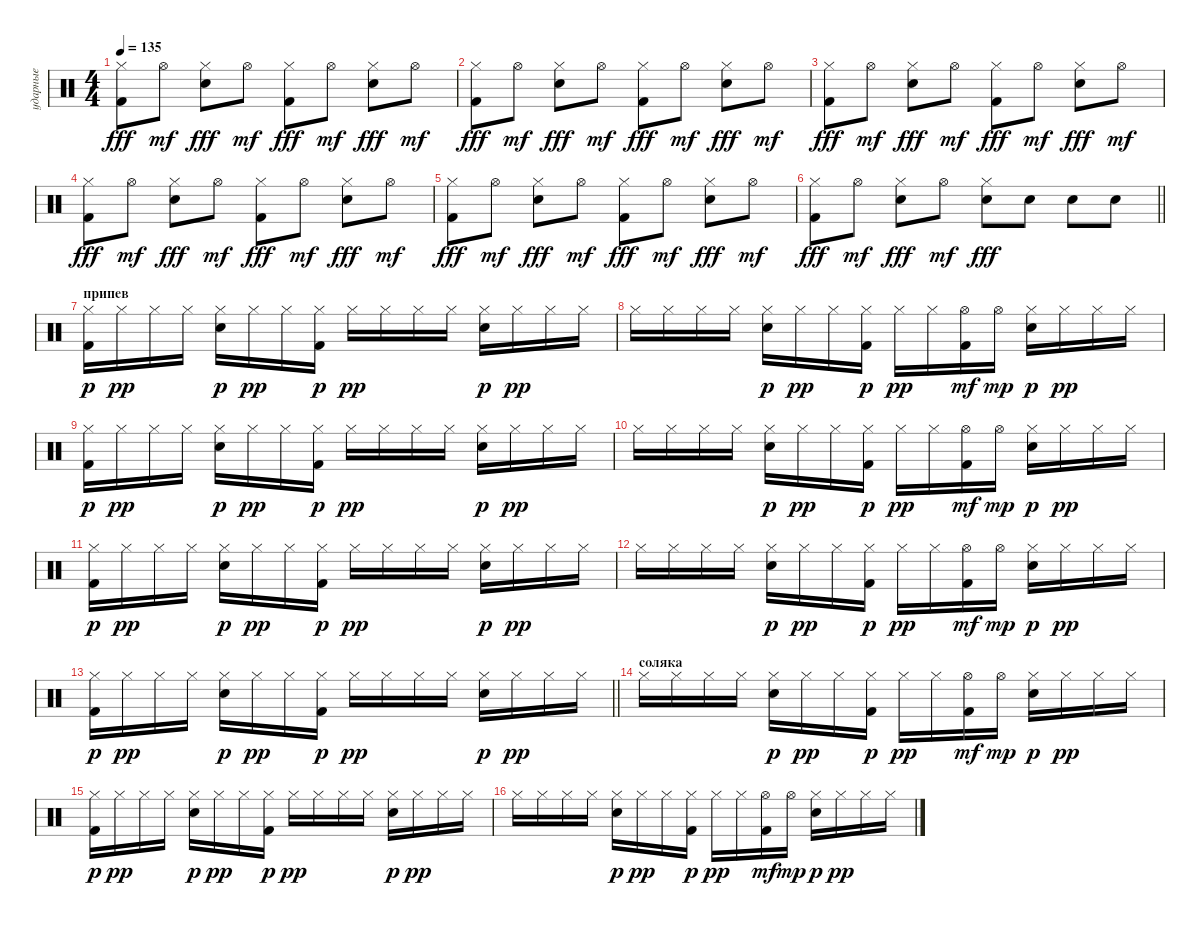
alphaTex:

\track ("ударные" "ударные") {instrument percussion}
\staff {score}
\articulation defaults
\ts (4 4)
\tempo 135
\clef neutral
\ks c
("Hi-Hat (closed)" "Kick (hit) 2").8{dy fff} "Hi-Hat (open)".8{dy mf} ("Hi-Hat (closed)" "Snare (hit) 2").8{dy fff} "Hi-Hat (open)".8{dy mf} ("Hi-Hat (closed)" "Kick (hit) 2").8{dy fff} "Hi-Hat (open)".8{dy mf} ("Hi-Hat (closed)" "Snare (hit) 2").8{dy fff} "Hi-Hat (open)".8{dy mf} |
("Hi-Hat (closed)" "Kick (hit) 2").8{dy fff} "Hi-Hat (open)".8{dy mf} ("Hi-Hat (closed)" "Snare (hit) 2").8{dy fff} "Hi-Hat (open)".8{dy mf} ("Hi-Hat (closed)" "Kick (hit) 2").8{dy fff} "Hi-Hat (open)".8{dy mf} ("Hi-Hat (closed)" "Snare (hit) 2").8{dy fff} "Hi-Hat (open)".8{dy mf} |
("Hi-Hat (closed)" "Kick (hit) 2").8{dy fff} "Hi-Hat (open)".8{dy mf} ("Hi-Hat (closed)" "Snare (hit) 2").8{dy fff} "Hi-Hat (open)".8{dy mf} ("Hi-Hat (closed)" "Kick (hit) 2").8{dy fff} "Hi-Hat (open)".8{dy mf} ("Hi-Hat (closed)" "Snare (hit) 2").8{dy fff} "Hi-Hat (open)".8{dy mf} |
("Hi-Hat (closed)" "Kick (hit) 2").8{dy fff} "Hi-Hat (open)".8{dy mf} ("Hi-Hat (closed)" "Snare (hit) 2").8{dy fff} "Hi-Hat (open)".8{dy mf} ("Hi-Hat (closed)" "Kick (hit) 2").8{dy fff} "Hi-Hat (open)".8{dy mf} ("Hi-Hat (closed)" "Snare (hit) 2").8{dy fff} "Hi-Hat (open)".8{dy mf} |
("Hi-Hat (closed)" "Kick (hit) 2").8{dy fff} "Hi-Hat (open)".8{dy mf} ("Hi-Hat (closed)" "Snare (hit) 2").8{dy fff} "Hi-Hat (open)".8{dy mf} ("Hi-Hat (closed)" "Kick (hit) 2").8{dy fff} "Hi-Hat (open)".8{dy mf} ("Hi-Hat (closed)" "Snare (hit) 2").8{dy fff} "Hi-Hat (open)".8{dy mf} |
\barLineRight lightlight
("Hi-Hat (closed)" "Kick (hit) 2").8{dy fff} "Hi-Hat (open)".8{dy mf} ("Hi-Hat (closed)" "Snare (hit) 2").8{dy fff} "Hi-Hat (open)".8{dy mf} ("Hi-Hat (closed)" "Snare (hit) 2").8{dy fff} "Electric Snare (hit)".8 "Electric Snare (hit)".8 "Electric Snare (hit)".8 |
\section ("" "припев")
("Hi-Hat (closed)" "Kick (hit) 2").16{dy p} "Hi-Hat (closed)".16{dy pp} "Hi-Hat (closed)".16 "Hi-Hat (closed)".16 ("Hi-Hat (closed)" "Electric Snare (hit)").16{dy p} "Hi-Hat (closed)".16{dy pp} "Hi-Hat (closed)".16 ("Hi-Hat (closed)" "Kick (hit) 2").16{dy p} "Hi-Hat (closed)".16{dy pp} "Hi-Hat (closed)".16 "Hi-Hat (closed)".16 "Hi-Hat (closed)".16 ("Hi-Hat (closed)" "Electric Snare (hit)").16{dy p} "Hi-Hat (closed)".16{dy pp} "Hi-Hat (closed)".16 "Hi-Hat (closed)".16 |
"Hi-Hat (closed)".16 "Hi-Hat (closed)".16 "Hi-Hat (closed)".16 "Hi-Hat (closed)".16 ("Hi-Hat (closed)" "Electric Snare (hit)").16{dy p} "Hi-Hat (closed)".16{dy pp} "Hi-Hat (closed)".16 ("Hi-Hat (closed)" "Kick (hit) 2").16{dy p} "Hi-Hat (closed)".16{dy pp} "Hi-Hat (closed)".16 ("Hi-Hat (open)" "Kick (hit) 2").16{dy mf} "Hi-Hat (open)".16{dy mp} ("Hi-Hat (closed)" "Electric Snare (hit)").16{dy p} "Hi-Hat (closed)".16{dy pp} "Hi-Hat (closed)".16 "Hi-Hat (closed)".16 |
("Hi-Hat (closed)" "Kick (hit) 2").16{dy p} "Hi-Hat (closed)".16{dy pp} "Hi-Hat (closed)".16 "Hi-Hat (closed)".16 ("Hi-Hat (closed)" "Electric Snare (hit)").16{dy p} "Hi-Hat (closed)".16{dy pp} "Hi-Hat (closed)".16 ("Hi-Hat (closed)" "Kick (hit) 2").16{dy p} "Hi-Hat (closed)".16{dy pp} "Hi-Hat (closed)".16 "Hi-Hat (closed)".16 "Hi-Hat (closed)".16 ("Hi-Hat (closed)" "Electric Snare (hit)").16{dy p} "Hi-Hat (closed)".16{dy pp} "Hi-Hat (closed)".16 "Hi-Hat (closed)".16 |
"Hi-Hat (closed)".16 "Hi-Hat (closed)".16 "Hi-Hat (closed)".16 "Hi-Hat (closed)".16 ("Hi-Hat (closed)" "Electric Snare (hit)").16{dy p} "Hi-Hat (closed)".16{dy pp} "Hi-Hat (closed)".16 ("Hi-Hat (closed)" "Kick (hit) 2").16{dy p} "Hi-Hat (closed)".16{dy pp} "Hi-Hat (closed)".16 ("Hi-Hat (open)" "Kick (hit) 2").16{dy mf} "Hi-Hat (open)".16{dy mp} ("Hi-Hat (closed)" "Electric Snare (hit)").16{dy p} "Hi-Hat (closed)".16{dy pp} "Hi-Hat (closed)".16 "Hi-Hat (closed)".16 |
("Hi-Hat (closed)" "Kick (hit) 2").16{dy p} "Hi-Hat (closed)".16{dy pp} "Hi-Hat (closed)".16 "Hi-Hat (closed)".16 ("Hi-Hat (closed)" "Electric Snare (hit)").16{dy p} "Hi-Hat (closed)".16{dy pp} "Hi-Hat (closed)".16 ("Hi-Hat (closed)" "Kick (hit) 2").16{dy p} "Hi-Hat (closed)".16{dy pp} "Hi-Hat (closed)".16 "Hi-Hat (closed)".16 "Hi-Hat (closed)".16 ("Hi-Hat (closed)" "Electric Snare (hit)").16{dy p} "Hi-Hat (closed)".16{dy pp} "Hi-Hat (closed)".16 "Hi-Hat (closed)".16 |
"Hi-Hat (closed)".16 "Hi-Hat (closed)".16 "Hi-Hat (closed)".16 "Hi-Hat (closed)".16 ("Hi-Hat (closed)" "Electric Snare (hit)").16{dy p} "Hi-Hat (closed)".16{dy pp} "Hi-Hat (closed)".16 ("Hi-Hat (closed)" "Kick (hit) 2").16{dy p} "Hi-Hat (closed)".16{dy pp} "Hi-Hat (closed)".16 ("Hi-Hat (open)" "Kick (hit) 2").16{dy mf} "Hi-Hat (open)".16{dy mp} ("Hi-Hat (closed)" "Electric Snare (hit)").16{dy p} "Hi-Hat (closed)".16{dy pp} "Hi-Hat (closed)".16 "Hi-Hat (closed)".16 |
\barLineRight lightlight
("Hi-Hat (closed)" "Kick (hit) 2").16{dy p} "Hi-Hat (closed)".16{dy pp} "Hi-Hat (closed)".16 "Hi-Hat (closed)".16 ("Hi-Hat (closed)" "Electric Snare (hit)").16{dy p} "Hi-Hat (closed)".16{dy pp} "Hi-Hat (closed)".16 ("Hi-Hat (closed)" "Kick (hit) 2").16{dy p} "Hi-Hat (closed)".16{dy pp} "Hi-Hat (closed)".16 "Hi-Hat (closed)".16 "Hi-Hat (closed)".16 ("Hi-Hat (closed)" "Electric Snare (hit)").16{dy p} "Hi-Hat (closed)".16{dy pp} "Hi-Hat (closed)".16 "Hi-Hat (closed)".16 |
\section ("" "соляка")
"Hi-Hat (closed)".16 "Hi-Hat (closed)".16 "Hi-Hat (closed)".16 "Hi-Hat (closed)".16 ("Hi-Hat (closed)" "Electric Snare (hit)").16{dy p} "Hi-Hat (closed)".16{dy pp} "Hi-Hat (closed)".16 ("Hi-Hat (closed)" "Kick (hit) 2").16{dy p} "Hi-Hat (closed)".16{dy pp} "Hi-Hat (closed)".16 ("Hi-Hat (open)" "Kick (hit) 2").16{dy mf} "Hi-Hat (open)".16{dy mp} ("Hi-Hat (closed)" "Electric Snare (hit)").16{dy p} "Hi-Hat (closed)".16{dy pp} "Hi-Hat (closed)".16 "Hi-Hat (closed)".16 |
("Hi-Hat (closed)" "Kick (hit) 2").16{dy p} "Hi-Hat (closed)".16{dy pp} "Hi-Hat (closed)".16 "Hi-Hat (closed)".16 ("Hi-Hat (closed)" "Electric Snare (hit)").16{dy p} "Hi-Hat (closed)".16{dy pp} "Hi-Hat (closed)".16 ("Hi-Hat (closed)" "Kick (hit) 2").16{dy p} "Hi-Hat (closed)".16{dy pp} "Hi-Hat (closed)".16 "Hi-Hat (closed)".16 "Hi-Hat (closed)".16 ("Hi-Hat (closed)" "Electric Snare (hit)").16{dy p} "Hi-Hat (closed)".16{dy pp} "Hi-Hat (closed)".16 "Hi-Hat (closed)".16 |
"Hi-Hat (closed)".16 "Hi-Hat (closed)".16 "Hi-Hat (closed)".16 "Hi-Hat (closed)".16 ("Hi-Hat (closed)" "Electric Snare (hit)").16{dy p} "Hi-Hat (closed)".16{dy pp} "Hi-Hat (closed)".16 ("Hi-Hat (closed)" "Kick (hit) 2").16{dy p} "Hi-Hat (closed)".16{dy pp} "Hi-Hat (closed)".16 ("Hi-Hat (open)" "Kick (hit) 2").16{dy mf} "Hi-Hat (open)".16{dy mp} ("Hi-Hat (closed)" "Electric Snare (hit)").16{dy p} "Hi-Hat (closed)".16{dy pp} "Hi-Hat (closed)".16 "Hi-Hat (closed)".16
